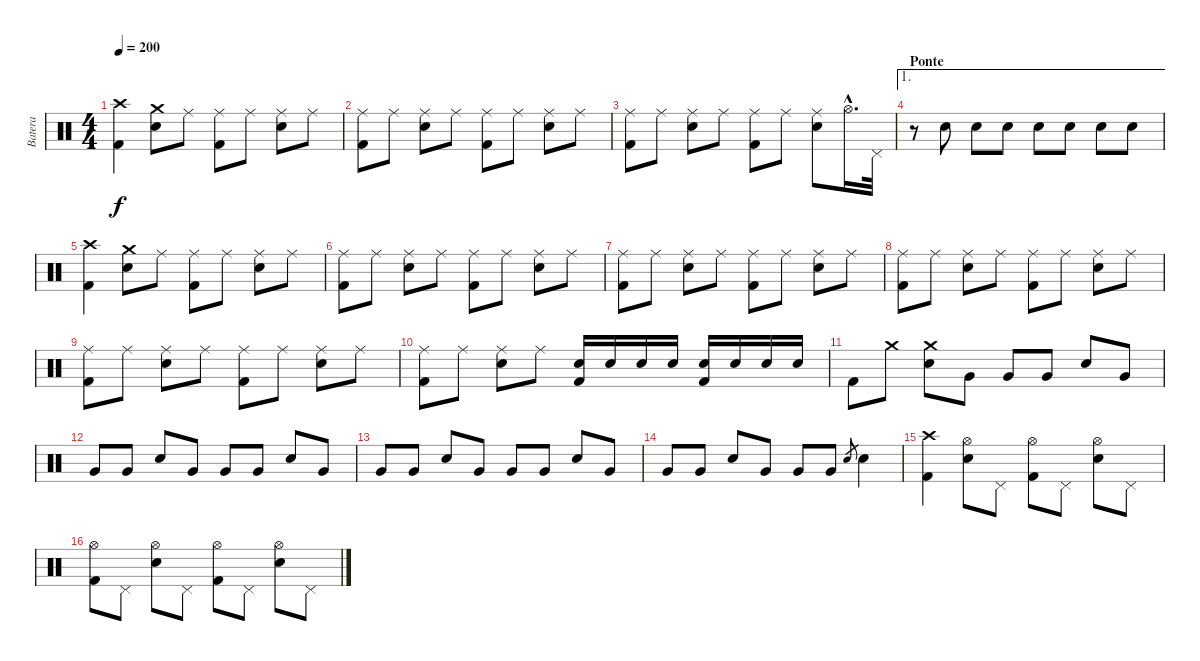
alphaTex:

\track ("Batera" "Batera") {instrument percussion}
\staff {score}
\articulation defaults
\ts (4 4)
\tempo 200
\clef neutral
\ks c
("Crash high (hit)" "Kick (hit) 2").4{dy f} ("Crash medium (hit)" "Electric Snare (hit)").8 "Ride (middle)".8 ("Ride (middle)" "Kick (hit) 2").8 "Ride (middle)".8 ("Ride (middle)" "Electric Snare (hit)").8 "Ride (middle)".8 |
("Ride (middle)" "Kick (hit) 2").8 "Ride (middle)".8 ("Ride (middle)" "Electric Snare (hit)").8 "Ride (middle)".8 ("Ride (middle)" "Kick (hit) 2").8 "Ride (middle)".8 ("Ride (middle)" "Electric Snare (hit)").8 "Ride (middle)".8 |
("Ride (middle)" "Kick (hit) 2").8 "Ride (middle)".8 ("Ride (middle)" "Electric Snare (hit)").8 "Ride (middle)".8 ("Ride (middle)" "Kick (hit) 2").8 "Ride (middle)".8 ("Ride (middle)" "Electric Snare (hit)").8 "Hi-Hat (open)"{hac}.16{d} "Pedal Hi-Hat (hit)".32 |
\ae 1
\section ("" "Ponte")
r.8 "Electric Snare (hit)".8 "Electric Snare (hit)".8 "Electric Snare (hit)".8 "Electric Snare (hit)".8 "Electric Snare (hit)".8 "Electric Snare (hit)".8 "Electric Snare (hit)".8 |
("Crash high (hit)" "Kick (hit) 2").4 ("Crash medium (hit)" "Electric Snare (hit)").8 "Ride (middle)".8 ("Ride (middle)" "Kick (hit) 2").8 "Ride (middle)".8 ("Ride (middle)" "Electric Snare (hit)").8 "Ride (middle)".8 |
("Ride (middle)" "Kick (hit) 2").8 "Ride (middle)".8 ("Ride (middle)" "Electric Snare (hit)").8 "Ride (middle)".8 ("Ride (middle)" "Kick (hit) 2").8 "Ride (middle)".8 ("Ride (middle)" "Electric Snare (hit)").8 "Ride (middle)".8 |
("Ride (middle)" "Kick (hit) 2").8 "Ride (middle)".8 ("Ride (middle)" "Electric Snare (hit)").8 "Ride (middle)".8 ("Ride (middle)" "Kick (hit) 2").8 "Ride (middle)".8 ("Ride (middle)" "Electric Snare (hit)").8 "Ride (middle)".8 |
("Ride (middle)" "Kick (hit) 2").8 "Ride (middle)".8 ("Ride (middle)" "Electric Snare (hit)").8 "Ride (middle)".8 ("Ride (middle)" "Kick (hit) 2").8 "Ride (middle)".8 ("Ride (middle)" "Electric Snare (hit)").8 "Ride (middle)".8 |
("Ride (middle)" "Kick (hit) 2").8 "Ride (middle)".8 ("Ride (middle)" "Electric Snare (hit)").8 "Ride (middle)".8 ("Ride (middle)" "Kick (hit) 2").8 "Ride (middle)".8 ("Ride (middle)" "Electric Snare (hit)").8 "Ride (middle)".8 |
("Ride (middle)" "Kick (hit) 2").8 "Ride (middle)".8 ("Ride (middle)" "Electric Snare (hit)").8 "Ride (middle)".8 ("Electric Snare (hit)" "Kick (hit) 2").16 "Electric Snare (hit)".16 "Electric Snare (hit)".16 "Electric Snare (hit)".16 ("Electric Snare (hit)" "Kick (hit) 2").16 "Electric Snare (hit)".16 "Electric Snare (hit)".16 "Electric Snare (hit)".16 |
"Kick (hit) 2".8 "Crash medium (hit)".8 ("Crash medium (hit)" "Electric Snare (hit)").8 "Very Low Tom (hit)".8 "Very Low Tom (hit)".8 "Very Low Tom (hit)".8 "Electric Snare (hit)".8 "Very Low Tom (hit)".8 |
"Very Low Tom (hit)".8 "Very Low Tom (hit)".8 "Electric Snare (hit)".8 "Very Low Tom (hit)".8 "Very Low Tom (hit)".8 "Very Low Tom (hit)".8 "Electric Snare (hit)".8 "Very Low Tom (hit)".8 |
"Very Low Tom (hit)".8 "Very Low Tom (hit)".8 "Electric Snare (hit)".8 "Very Low Tom (hit)".8 "Very Low Tom (hit)".8 "Very Low Tom (hit)".8 "Electric Snare (hit)".8 "Very Low Tom (hit)".8 |
"Very Low Tom (hit)".8 "Very Low Tom (hit)".8 "Electric Snare (hit)".8 "Very Low Tom (hit)".8 "Very Low Tom (hit)".8 "Very Low Tom (hit)".8 "Electric Snare (hit)".8{gr} "Electric Snare (hit)".4 |
("Crash high (hit)" "Kick (hit) 2").4 ("Hi-Hat (open)" "Electric Snare (hit)").8 "Pedal Hi-Hat (hit)".8 ("Hi-Hat (open)" "Kick (hit) 2").8 "Pedal Hi-Hat (hit)".8 ("Hi-Hat (open)" "Electric Snare (hit)").8 "Pedal Hi-Hat (hit)".8 |
("Hi-Hat (open)" "Kick (hit) 2").8 "Pedal Hi-Hat (hit)".8 ("Hi-Hat (open)" "Electric Snare (hit)").8 "Pedal Hi-Hat (hit)".8 ("Hi-Hat (open)" "Kick (hit) 2").8 "Pedal Hi-Hat (hit)".8 ("Hi-Hat (open)" "Electric Snare (hit)").8 "Pedal Hi-Hat (hit)".8
